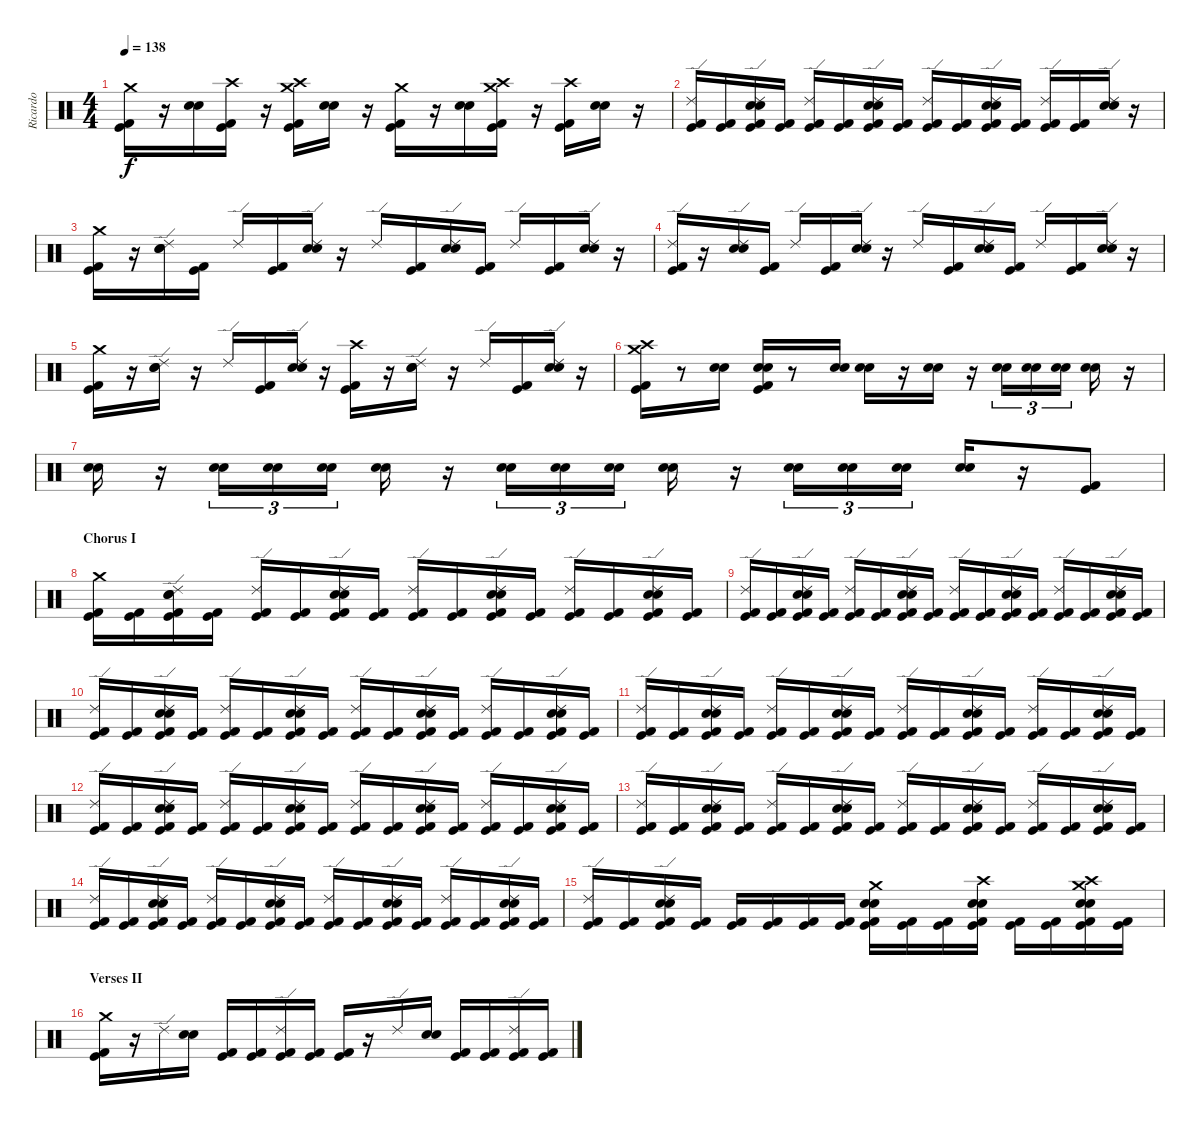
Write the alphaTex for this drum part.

\track ("Ricardo" "Ricardo") {instrument percussion}
\staff {score}
\articulation defaults
\ts (4 4)
\tempo 138
\clef neutral
\ks c
("Crash medium (hit)" "Kick (hit) 2" "Kick (hit)").16{dy f} r.16 ("Electric Snare (hit)" "Snare (hit) 2").16 ("Crash high (hit)" "Kick (hit)" "Kick (hit) 2").16 r.16 ("Crash high (hit)" "Crash medium (hit)" "Kick (hit) 2" "Kick (hit)").16 ("Electric Snare (hit)" "Snare (hit) 2").16 r.16 ("Crash medium (hit)" "Kick (hit) 2" "Kick (hit)").16 r.16 ("Electric Snare (hit)" "Snare (hit) 2").16 ("Crash medium (hit)" "Crash high (hit)" "Kick (hit) 2" "Kick (hit)").16 r.16 ("Crash high (hit)" "Kick (hit) 2" "Kick (hit)").16 ("Electric Snare (hit)" "Snare (hit) 2").16 r.16 |
("Ride (edge) 2" "Kick (hit) 2" "Kick (hit)").16 ("Kick (hit) 2" "Kick (hit)").16 ("Electric Snare (hit)" "Snare (hit) 2" "Ride (edge) 2" "Kick (hit) 2" "Kick (hit)").16 ("Kick (hit) 2" "Kick (hit)").16 ("Ride (edge) 2" "Kick (hit) 2" "Kick (hit)").16 ("Kick (hit) 2" "Kick (hit)").16 ("Electric Snare (hit)" "Snare (hit) 2" "Ride (edge) 2" "Kick (hit) 2" "Kick (hit)").16 ("Kick (hit) 2" "Kick (hit)").16 ("Ride (edge) 2" "Kick (hit) 2" "Kick (hit)").16 ("Kick (hit) 2" "Kick (hit)").16 ("Electric Snare (hit)" "Snare (hit) 2" "Ride (edge) 2" "Kick (hit) 2" "Kick (hit)").16 ("Kick (hit) 2" "Kick (hit)").16 ("Ride (edge) 2" "Kick (hit) 2" "Kick (hit)").16 ("Kick (hit) 2" "Kick (hit)").16 ("Ride (edge) 2" "Electric Snare (hit)" "Snare (hit) 2").16 r.16 |
("Crash medium (hit)" "Kick (hit) 2" "Kick (hit)").16 r.16 ("Electric Snare (hit)" "Snare (hit) 2" "Ride (edge) 2").16 ("Kick (hit) 2" "Kick (hit)").16 "Ride (edge) 2".16 ("Kick (hit) 2" "Kick (hit)").16 ("Electric Snare (hit)" "Snare (hit) 2" "Ride (edge) 2").16 r.16 "Ride (edge) 2".16 ("Kick (hit) 2" "Kick (hit)").16 ("Electric Snare (hit)" "Snare (hit) 2" "Ride (edge) 2").16 ("Kick (hit) 2" "Kick (hit)").16 "Ride (edge) 2".16 ("Kick (hit) 2" "Kick (hit)").16 ("Electric Snare (hit)" "Snare (hit) 2" "Ride (edge) 2").16 r.16 |
("Ride (edge) 2" "Kick (hit) 2" "Kick (hit)").16 r.16 ("Ride (edge) 2" "Electric Snare (hit)" "Snare (hit) 2").16 ("Kick (hit) 2" "Kick (hit)").16 "Ride (edge) 2".16 ("Kick (hit) 2" "Kick (hit)").16 ("Electric Snare (hit)" "Snare (hit) 2" "Ride (edge) 2").16 r.16 "Ride (edge) 2".16 ("Kick (hit) 2" "Kick (hit)").16 ("Electric Snare (hit)" "Snare (hit) 2" "Ride (edge) 2").16 ("Kick (hit) 2" "Kick (hit)").16 "Ride (edge) 2".16 ("Kick (hit) 2" "Kick (hit)").16 ("Electric Snare (hit)" "Snare (hit) 2" "Ride (edge) 2").16 r.16 |
("Kick (hit) 2" "Kick (hit)" "Crash medium (hit)").16 r.16 ("Electric Snare (hit)" "Snare (hit) 2" "Ride (edge) 2").16 r.16 "Ride (edge) 2".16 ("Kick (hit) 2" "Kick (hit)").16 ("Electric Snare (hit)" "Snare (hit) 2" "Ride (edge) 2").16 r.16 ("Crash high (hit)" "Kick (hit) 2" "Kick (hit)").16 r.16 ("Ride (edge) 2" "Electric Snare (hit)" "Snare (hit) 2").16 r.16 "Ride (edge) 2".16 ("Kick (hit)" "Kick (hit) 2").16 ("Ride (edge) 2" "Electric Snare (hit)" "Snare (hit) 2").16 r.16 |
("Crash high (hit)" "Crash medium (hit)" "Kick (hit) 2" "Kick (hit)").16 r.8 ("Electric Snare (hit)" "Snare (hit) 2").16 ("Electric Snare (hit)" "Snare (hit) 2" "Kick (hit) 2" "Kick (hit)").16 r.8 ("Electric Snare (hit)" "Snare (hit) 2").16 ("Electric Snare (hit)" "Snare (hit) 2").16 r.16 ("Electric Snare (hit)" "Snare (hit) 2").16 r.16 ("Electric Snare (hit)" "Snare (hit) 2").16{tu (3 2)} ("Electric Snare (hit)" "Snare (hit) 2").16{tu (3 2)} ("Electric Snare (hit)" "Snare (hit) 2").16{tu (3 2)} ("Electric Snare (hit)" "Snare (hit) 2").16 r.16 |
("Electric Snare (hit)" "Snare (hit) 2").16 r.16 ("Electric Snare (hit)" "Snare (hit) 2").16{tu (3 2)} ("Electric Snare (hit)" "Snare (hit) 2").16{tu (3 2)} ("Electric Snare (hit)" "Snare (hit) 2").16{tu (3 2)} ("Electric Snare (hit)" "Snare (hit) 2").16 r.16 ("Electric Snare (hit)" "Snare (hit) 2").16{tu (3 2)} ("Electric Snare (hit)" "Snare (hit) 2").16{tu (3 2)} ("Electric Snare (hit)" "Snare (hit) 2").16{tu (3 2)} ("Electric Snare (hit)" "Snare (hit) 2").16 r.16 ("Electric Snare (hit)" "Snare (hit) 2").16{tu (3 2)} ("Electric Snare (hit)" "Snare (hit) 2").16{tu (3 2)} ("Electric Snare (hit)" "Snare (hit) 2").16{tu (3 2)} ("Electric Snare (hit)" "Snare (hit) 2").16 r.16 ("Kick (hit) 2" "Kick (hit)").8 |
\section ("" "Chorus I")
("Crash medium (hit)" "Kick (hit) 2" "Kick (hit)").16 ("Kick (hit) 2" "Kick (hit)").16 ("Electric Snare (hit)" "Snare (hit) 2" "Ride (edge) 2" "Kick (hit) 2" "Kick (hit)").16 ("Kick (hit) 2" "Kick (hit)").16 ("Ride (edge) 2" "Kick (hit) 2" "Kick (hit)").16 ("Kick (hit) 2" "Kick (hit)").16 ("Electric Snare (hit)" "Snare (hit) 2" "Ride (edge) 2" "Kick (hit) 2" "Kick (hit)").16 ("Kick (hit) 2" "Kick (hit)").16 ("Ride (edge) 2" "Kick (hit) 2" "Kick (hit)").16 ("Kick (hit) 2" "Kick (hit)").16 ("Electric Snare (hit)" "Snare (hit) 2" "Ride (edge) 2" "Kick (hit) 2" "Kick (hit)").16 ("Kick (hit) 2" "Kick (hit)").16 ("Ride (edge) 2" "Kick (hit) 2" "Kick (hit)").16 ("Kick (hit) 2" "Kick (hit)").16 ("Electric Snare (hit)" "Snare (hit) 2" "Ride (edge) 2" "Kick (hit) 2" "Kick (hit)").16 ("Kick (hit) 2" "Kick (hit)").16 |
("Ride (edge) 2" "Kick (hit) 2" "Kick (hit)").16 ("Kick (hit) 2" "Kick (hit)").16 ("Electric Snare (hit)" "Snare (hit) 2" "Ride (edge) 2" "Kick (hit) 2" "Kick (hit)").16 ("Kick (hit) 2" "Kick (hit)").16 ("Ride (edge) 2" "Kick (hit) 2" "Kick (hit)").16 ("Kick (hit) 2" "Kick (hit)").16 ("Electric Snare (hit)" "Snare (hit) 2" "Ride (edge) 2" "Kick (hit) 2" "Kick (hit)").16 ("Kick (hit) 2" "Kick (hit)").16 ("Ride (edge) 2" "Kick (hit) 2" "Kick (hit)").16 ("Kick (hit) 2" "Kick (hit)").16 ("Electric Snare (hit)" "Snare (hit) 2" "Ride (edge) 2" "Kick (hit) 2" "Kick (hit)").16 ("Kick (hit) 2" "Kick (hit)").16 ("Ride (edge) 2" "Kick (hit) 2" "Kick (hit)").16 ("Kick (hit) 2" "Kick (hit)").16 ("Electric Snare (hit)" "Snare (hit) 2" "Ride (edge) 2" "Kick (hit) 2" "Kick (hit)").16 ("Kick (hit) 2" "Kick (hit)").16 |
("Ride (edge) 2" "Kick (hit) 2" "Kick (hit)").16 ("Kick (hit) 2" "Kick (hit)").16 ("Electric Snare (hit)" "Snare (hit) 2" "Ride (edge) 2" "Kick (hit) 2" "Kick (hit)").16 ("Kick (hit) 2" "Kick (hit)").16 ("Ride (edge) 2" "Kick (hit) 2" "Kick (hit)").16 ("Kick (hit) 2" "Kick (hit)").16 ("Electric Snare (hit)" "Snare (hit) 2" "Ride (edge) 2" "Kick (hit) 2" "Kick (hit)").16 ("Kick (hit) 2" "Kick (hit)").16 ("Ride (edge) 2" "Kick (hit) 2" "Kick (hit)").16 ("Kick (hit) 2" "Kick (hit)").16 ("Electric Snare (hit)" "Snare (hit) 2" "Ride (edge) 2" "Kick (hit) 2" "Kick (hit)").16 ("Kick (hit) 2" "Kick (hit)").16 ("Ride (edge) 2" "Kick (hit) 2" "Kick (hit)").16 ("Kick (hit) 2" "Kick (hit)").16 ("Electric Snare (hit)" "Snare (hit) 2" "Ride (edge) 2" "Kick (hit) 2" "Kick (hit)").16 ("Kick (hit) 2" "Kick (hit)").16 |
("Ride (edge) 2" "Kick (hit) 2" "Kick (hit)").16 ("Kick (hit) 2" "Kick (hit)").16 ("Electric Snare (hit)" "Snare (hit) 2" "Ride (edge) 2" "Kick (hit) 2" "Kick (hit)").16 ("Kick (hit) 2" "Kick (hit)").16 ("Ride (edge) 2" "Kick (hit) 2" "Kick (hit)").16 ("Kick (hit) 2" "Kick (hit)").16 ("Electric Snare (hit)" "Snare (hit) 2" "Ride (edge) 2" "Kick (hit) 2" "Kick (hit)").16 ("Kick (hit) 2" "Kick (hit)").16 ("Ride (edge) 2" "Kick (hit) 2" "Kick (hit)").16 ("Kick (hit) 2" "Kick (hit)").16 ("Electric Snare (hit)" "Snare (hit) 2" "Ride (edge) 2" "Kick (hit) 2" "Kick (hit)").16 ("Kick (hit) 2" "Kick (hit)").16 ("Ride (edge) 2" "Kick (hit) 2" "Kick (hit)").16 ("Kick (hit) 2" "Kick (hit)").16 ("Electric Snare (hit)" "Snare (hit) 2" "Ride (edge) 2" "Kick (hit) 2" "Kick (hit)").16 ("Kick (hit) 2" "Kick (hit)").16 |
("Ride (edge) 2" "Kick (hit) 2" "Kick (hit)").16 ("Kick (hit) 2" "Kick (hit)").16 ("Electric Snare (hit)" "Snare (hit) 2" "Ride (edge) 2" "Kick (hit) 2" "Kick (hit)").16 ("Kick (hit) 2" "Kick (hit)").16 ("Ride (edge) 2" "Kick (hit) 2" "Kick (hit)").16 ("Kick (hit) 2" "Kick (hit)").16 ("Electric Snare (hit)" "Snare (hit) 2" "Ride (edge) 2" "Kick (hit) 2" "Kick (hit)").16 ("Kick (hit) 2" "Kick (hit)").16 ("Ride (edge) 2" "Kick (hit) 2" "Kick (hit)").16 ("Kick (hit) 2" "Kick (hit)").16 ("Electric Snare (hit)" "Snare (hit) 2" "Ride (edge) 2" "Kick (hit) 2" "Kick (hit)").16 ("Kick (hit) 2" "Kick (hit)").16 ("Ride (edge) 2" "Kick (hit) 2" "Kick (hit)").16 ("Kick (hit) 2" "Kick (hit)").16 ("Electric Snare (hit)" "Snare (hit) 2" "Ride (edge) 2" "Kick (hit) 2" "Kick (hit)").16 ("Kick (hit) 2" "Kick (hit)").16 |
("Ride (edge) 2" "Kick (hit) 2" "Kick (hit)").16 ("Kick (hit) 2" "Kick (hit)").16 ("Electric Snare (hit)" "Snare (hit) 2" "Ride (edge) 2" "Kick (hit) 2" "Kick (hit)").16 ("Kick (hit) 2" "Kick (hit)").16 ("Ride (edge) 2" "Kick (hit) 2" "Kick (hit)").16 ("Kick (hit) 2" "Kick (hit)").16 ("Electric Snare (hit)" "Snare (hit) 2" "Ride (edge) 2" "Kick (hit) 2" "Kick (hit)").16 ("Kick (hit) 2" "Kick (hit)").16 ("Ride (edge) 2" "Kick (hit) 2" "Kick (hit)").16 ("Kick (hit) 2" "Kick (hit)").16 ("Electric Snare (hit)" "Snare (hit) 2" "Ride (edge) 2" "Kick (hit) 2" "Kick (hit)").16 ("Kick (hit) 2" "Kick (hit)").16 ("Ride (edge) 2" "Kick (hit) 2" "Kick (hit)").16 ("Kick (hit) 2" "Kick (hit)").16 ("Electric Snare (hit)" "Snare (hit) 2" "Ride (edge) 2" "Kick (hit) 2" "Kick (hit)").16 ("Kick (hit) 2" "Kick (hit)").16 |
("Ride (edge) 2" "Kick (hit) 2" "Kick (hit)").16 ("Kick (hit) 2" "Kick (hit)").16 ("Electric Snare (hit)" "Snare (hit) 2" "Ride (edge) 2" "Kick (hit) 2" "Kick (hit)").16 ("Kick (hit) 2" "Kick (hit)").16 ("Ride (edge) 2" "Kick (hit) 2" "Kick (hit)").16 ("Kick (hit) 2" "Kick (hit)").16 ("Electric Snare (hit)" "Snare (hit) 2" "Ride (edge) 2" "Kick (hit) 2" "Kick (hit)").16 ("Kick (hit) 2" "Kick (hit)").16 ("Ride (edge) 2" "Kick (hit) 2" "Kick (hit)").16 ("Kick (hit) 2" "Kick (hit)").16 ("Electric Snare (hit)" "Snare (hit) 2" "Ride (edge) 2" "Kick (hit) 2" "Kick (hit)").16 ("Kick (hit) 2" "Kick (hit)").16 ("Ride (edge) 2" "Kick (hit) 2" "Kick (hit)").16 ("Kick (hit) 2" "Kick (hit)").16 ("Electric Snare (hit)" "Snare (hit) 2" "Ride (edge) 2" "Kick (hit) 2" "Kick (hit)").16 ("Kick (hit) 2" "Kick (hit)").16 |
("Ride (edge) 2" "Kick (hit) 2" "Kick (hit)").16 ("Kick (hit) 2" "Kick (hit)").16 ("Electric Snare (hit)" "Snare (hit) 2" "Ride (edge) 2" "Kick (hit) 2" "Kick (hit)").16 ("Kick (hit) 2" "Kick (hit)").16 ("Kick (hit) 2" "Kick (hit)").16 ("Kick (hit) 2" "Kick (hit)").16 ("Kick (hit) 2" "Kick (hit)").16 ("Kick (hit) 2" "Kick (hit)").16 ("Electric Snare (hit)" "Snare (hit) 2" "Crash medium (hit)" "Kick (hit) 2" "Kick (hit)").16 ("Kick (hit) 2" "Kick (hit)").16 ("Kick (hit) 2" "Kick (hit)").16 ("Electric Snare (hit)" "Snare (hit) 2" "Crash high (hit)" "Kick (hit) 2" "Kick (hit)").16 ("Kick (hit) 2" "Kick (hit)").16 ("Kick (hit) 2" "Kick (hit)").16 ("Electric Snare (hit)" "Snare (hit) 2" "Crash high (hit)" "Crash medium (hit)" "Kick (hit) 2" "Kick (hit)").16 ("Kick (hit) 2" "Kick (hit)").16 |
\section ("" "Verses II")
("Crash medium (hit)" "Kick (hit) 2" "Kick (hit)").16 r.16 "Ride (edge) 2".16 ("Electric Snare (hit)" "Snare (hit) 2").16 ("Kick (hit) 2" "Kick (hit)").16 ("Kick (hit) 2" "Kick (hit)").16 ("Ride (edge) 2" "Kick (hit) 2" "Kick (hit)").16 ("Kick (hit) 2" "Kick (hit)").16 ("Kick (hit) 2" "Kick (hit)").16 r.16 "Ride (edge) 2".16 ("Electric Snare (hit)" "Snare (hit) 2").16 ("Kick (hit) 2" "Kick (hit)").16 ("Kick (hit) 2" "Kick (hit)").16 ("Ride (edge) 2" "Kick (hit) 2" "Kick (hit)").16 ("Kick (hit) 2" "Kick (hit)").16
